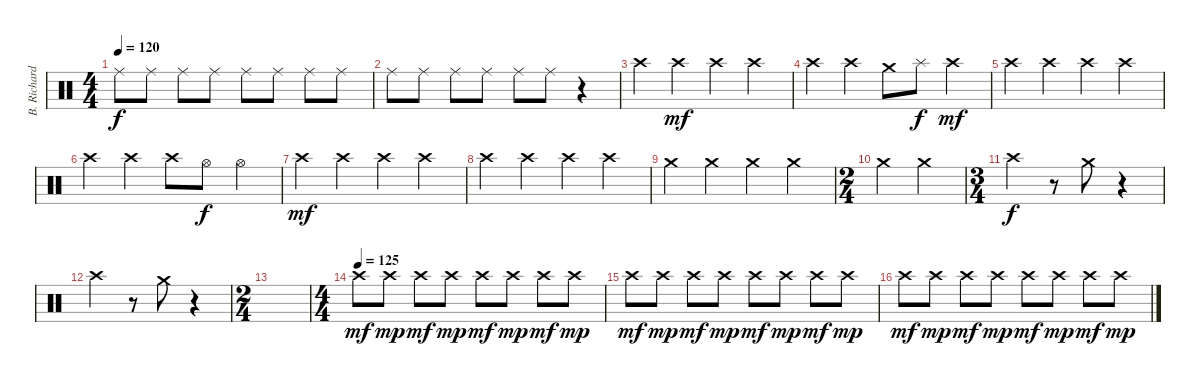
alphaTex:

\track ("B. Richardson Drums" "B. Richard") {instrument percussion}
\staff {score}
\articulation defaults
\ts (4 4)
\tempo 120
\clef neutral
\ks c "Ride (middle)".8{dy f} "Ride (middle)".8 "Ride (middle)".8 "Ride (middle)".8 "Ride (middle)".8 "Ride (middle)".8 "Ride (middle)".8 "Ride (middle)".8
|
"Ride (middle)".8 "Ride (middle)".8 "Ride (middle)".8 "Ride (middle)".8 "Ride (middle)".8 "Ride (middle)".8 r.4 |
"Crash high (hit)".4 "Crash high (hit)".4{dy mf} "Crash high (hit)".4 "Crash high (hit)".4 |
"Crash high (hit)".4 "Crash high (hit)".4 "Crash medium (hit)".8 "Splash (hit)".8{dy f} "Crash high (hit)".4{dy mf} |
"Crash high (hit)".4 "Crash high (hit)".4 "Crash high (hit)".4 "Crash high (hit)".4 |
"Crash high (hit)".4 "Crash high (hit)".4 "Crash high (hit)".8 "Hi-Hat (open)".8{dy f} "Hi-Hat (open)".4 |
"Crash high (hit)".4{dy mf} "Crash high (hit)".4 "Crash high (hit)".4 "Crash high (hit)".4 |
"Crash high (hit)".4 "Crash high (hit)".4 "Crash high (hit)".4 "Crash high (hit)".4 |
"Crash medium (hit)".4 "Crash medium (hit)".4 "Crash medium (hit)".4 "Crash medium (hit)".4 |
\ts (2 4)
"Crash medium (hit)".4 "Crash medium (hit)".4 |
\ts (3 4)
"Crash high (hit)".4{dy f} r.8 "Crash medium (hit)".8 r.4 |
"Crash high (hit)".4 r.8 "Crash medium (hit)".8 r.4 |
\ts (2 4)
|
\ts (4 4)
\tempo (125)
"Crash high (hit)".8{dy mf} "Crash high (hit)".8{dy mp} "Crash high (hit)".8{dy mf} "Crash high (hit)".8{dy mp} "Crash high (hit)".8{dy mf} "Crash high (hit)".8{dy mp} "Crash high (hit)".8{dy mf} "Crash high (hit)".8{dy mp} |
"Crash high (hit)".8{dy mf} "Crash high (hit)".8{dy mp} "Crash high (hit)".8{dy mf} "Crash high (hit)".8{dy mp} "Crash high (hit)".8{dy mf} "Crash high (hit)".8{dy mp} "Crash high (hit)".8{dy mf} "Crash high (hit)".8{dy mp} |
"Crash high (hit)".8{dy mf} "Crash high (hit)".8{dy mp} "Crash high (hit)".8{dy mf} "Crash high (hit)".8{dy mp} "Crash high (hit)".8{dy mf} "Crash high (hit)".8{dy mp} "Crash high (hit)".8{dy mf} "Crash high (hit)".8{dy mp}
